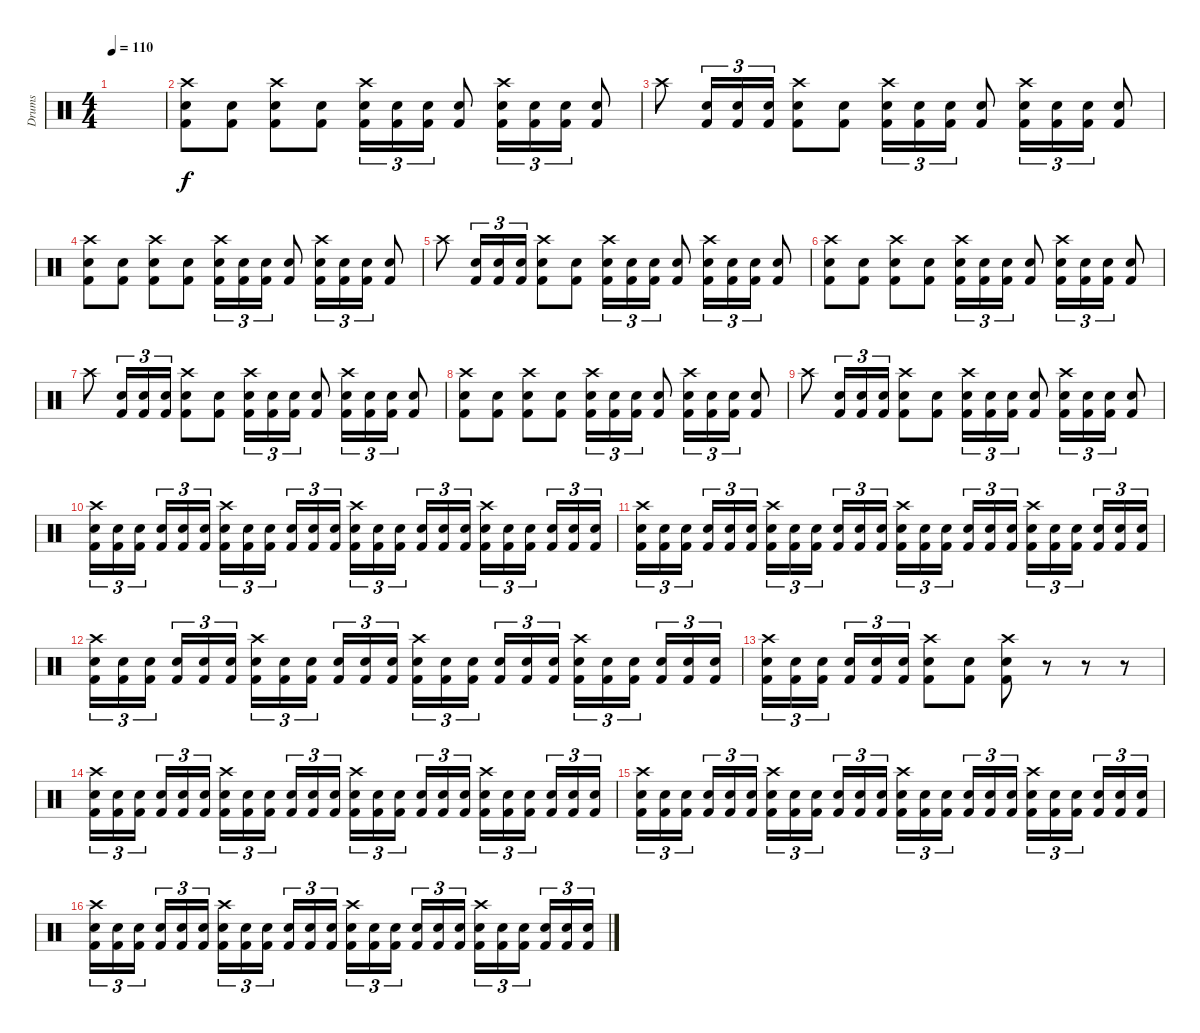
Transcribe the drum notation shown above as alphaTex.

\track ("Drums" "Drums") {instrument percussion}
\staff {score}
\articulation defaults
\ts (4 4)
\tempo 110
\clef neutral
\ks c
|
("Crash high (hit)" "Electric Snare (hit)" "Kick (hit) 2").8 ("Electric Snare (hit)" "Kick (hit) 2").8 ("Crash high (hit)" "Electric Snare (hit)" "Kick (hit) 2").8 ("Electric Snare (hit)" "Kick (hit) 2").8 ("Crash high (hit)" "Electric Snare (hit)" "Kick (hit) 2").16{tu (3 2)} ("Electric Snare (hit)" "Kick (hit) 2").16{tu (3 2)} ("Electric Snare (hit)" "Kick (hit) 2").16{tu (3 2)} ("Electric Snare (hit)" "Kick (hit) 2").8 ("Crash high (hit)" "Electric Snare (hit)" "Kick (hit) 2").16{tu (3 2)} ("Electric Snare (hit)" "Kick (hit) 2").16{tu (3 2)} ("Electric Snare (hit)" "Kick (hit) 2").16{tu (3 2)} ("Electric Snare (hit)" "Kick (hit) 2").8 |
"Crash high (hit)".8 ("Electric Snare (hit)" "Kick (hit) 2").16{tu (3 2)} ("Electric Snare (hit)" "Kick (hit) 2").16{tu (3 2)} ("Electric Snare (hit)" "Kick (hit) 2").16{tu (3 2)} ("Crash high (hit)" "Electric Snare (hit)" "Kick (hit) 2").8 ("Electric Snare (hit)" "Kick (hit) 2").8 ("Crash high (hit)" "Electric Snare (hit)" "Kick (hit) 2").16{tu (3 2)} ("Electric Snare (hit)" "Kick (hit) 2").16{tu (3 2)} ("Electric Snare (hit)" "Kick (hit) 2").16{tu (3 2)} ("Electric Snare (hit)" "Kick (hit) 2").8 ("Crash high (hit)" "Electric Snare (hit)" "Kick (hit) 2").16{tu (3 2)} ("Electric Snare (hit)" "Kick (hit) 2").16{tu (3 2)} ("Electric Snare (hit)" "Kick (hit) 2").16{tu (3 2)} ("Electric Snare (hit)" "Kick (hit) 2").8 |
("Crash high (hit)" "Electric Snare (hit)" "Kick (hit) 2").8 ("Electric Snare (hit)" "Kick (hit) 2").8 ("Crash high (hit)" "Electric Snare (hit)" "Kick (hit) 2").8 ("Electric Snare (hit)" "Kick (hit) 2").8 ("Crash high (hit)" "Electric Snare (hit)" "Kick (hit) 2").16{tu (3 2)} ("Electric Snare (hit)" "Kick (hit) 2").16{tu (3 2)} ("Electric Snare (hit)" "Kick (hit) 2").16{tu (3 2)} ("Electric Snare (hit)" "Kick (hit) 2").8 ("Crash high (hit)" "Electric Snare (hit)" "Kick (hit) 2").16{tu (3 2)} ("Electric Snare (hit)" "Kick (hit) 2").16{tu (3 2)} ("Electric Snare (hit)" "Kick (hit) 2").16{tu (3 2)} ("Electric Snare (hit)" "Kick (hit) 2").8 |
"Crash high (hit)".8 ("Electric Snare (hit)" "Kick (hit) 2").16{tu (3 2)} ("Electric Snare (hit)" "Kick (hit) 2").16{tu (3 2)} ("Electric Snare (hit)" "Kick (hit) 2").16{tu (3 2)} ("Crash high (hit)" "Electric Snare (hit)" "Kick (hit) 2").8 ("Electric Snare (hit)" "Kick (hit) 2").8 ("Crash high (hit)" "Electric Snare (hit)" "Kick (hit) 2").16{tu (3 2)} ("Electric Snare (hit)" "Kick (hit) 2").16{tu (3 2)} ("Electric Snare (hit)" "Kick (hit) 2").16{tu (3 2)} ("Electric Snare (hit)" "Kick (hit) 2").8 ("Crash high (hit)" "Electric Snare (hit)" "Kick (hit) 2").16{tu (3 2)} ("Electric Snare (hit)" "Kick (hit) 2").16{tu (3 2)} ("Electric Snare (hit)" "Kick (hit) 2").16{tu (3 2)} ("Electric Snare (hit)" "Kick (hit) 2").8 |
("Crash high (hit)" "Electric Snare (hit)" "Kick (hit) 2").8 ("Electric Snare (hit)" "Kick (hit) 2").8 ("Crash high (hit)" "Electric Snare (hit)" "Kick (hit) 2").8 ("Electric Snare (hit)" "Kick (hit) 2").8 ("Crash high (hit)" "Electric Snare (hit)" "Kick (hit) 2").16{tu (3 2)} ("Electric Snare (hit)" "Kick (hit) 2").16{tu (3 2)} ("Electric Snare (hit)" "Kick (hit) 2").16{tu (3 2)} ("Electric Snare (hit)" "Kick (hit) 2").8 ("Crash high (hit)" "Electric Snare (hit)" "Kick (hit) 2").16{tu (3 2)} ("Electric Snare (hit)" "Kick (hit) 2").16{tu (3 2)} ("Electric Snare (hit)" "Kick (hit) 2").16{tu (3 2)} ("Electric Snare (hit)" "Kick (hit) 2").8 |
"Crash high (hit)".8 ("Electric Snare (hit)" "Kick (hit) 2").16{tu (3 2)} ("Electric Snare (hit)" "Kick (hit) 2").16{tu (3 2)} ("Electric Snare (hit)" "Kick (hit) 2").16{tu (3 2)} ("Crash high (hit)" "Electric Snare (hit)" "Kick (hit) 2").8 ("Electric Snare (hit)" "Kick (hit) 2").8 ("Crash high (hit)" "Electric Snare (hit)" "Kick (hit) 2").16{tu (3 2)} ("Electric Snare (hit)" "Kick (hit) 2").16{tu (3 2)} ("Electric Snare (hit)" "Kick (hit) 2").16{tu (3 2)} ("Electric Snare (hit)" "Kick (hit) 2").8 ("Crash high (hit)" "Electric Snare (hit)" "Kick (hit) 2").16{tu (3 2)} ("Electric Snare (hit)" "Kick (hit) 2").16{tu (3 2)} ("Electric Snare (hit)" "Kick (hit) 2").16{tu (3 2)} ("Electric Snare (hit)" "Kick (hit) 2").8 |
("Crash high (hit)" "Electric Snare (hit)" "Kick (hit) 2").8 ("Electric Snare (hit)" "Kick (hit) 2").8 ("Crash high (hit)" "Electric Snare (hit)" "Kick (hit) 2").8 ("Electric Snare (hit)" "Kick (hit) 2").8 ("Crash high (hit)" "Electric Snare (hit)" "Kick (hit) 2").16{tu (3 2)} ("Electric Snare (hit)" "Kick (hit) 2").16{tu (3 2)} ("Electric Snare (hit)" "Kick (hit) 2").16{tu (3 2)} ("Electric Snare (hit)" "Kick (hit) 2").8 ("Crash high (hit)" "Electric Snare (hit)" "Kick (hit) 2").16{tu (3 2)} ("Electric Snare (hit)" "Kick (hit) 2").16{tu (3 2)} ("Electric Snare (hit)" "Kick (hit) 2").16{tu (3 2)} ("Electric Snare (hit)" "Kick (hit) 2").8 |
"Crash high (hit)".8 ("Electric Snare (hit)" "Kick (hit) 2").16{tu (3 2)} ("Electric Snare (hit)" "Kick (hit) 2").16{tu (3 2)} ("Electric Snare (hit)" "Kick (hit) 2").16{tu (3 2)} ("Crash high (hit)" "Electric Snare (hit)" "Kick (hit) 2").8 ("Electric Snare (hit)" "Kick (hit) 2").8 ("Crash high (hit)" "Electric Snare (hit)" "Kick (hit) 2").16{tu (3 2)} ("Electric Snare (hit)" "Kick (hit) 2").16{tu (3 2)} ("Electric Snare (hit)" "Kick (hit) 2").16{tu (3 2)} ("Electric Snare (hit)" "Kick (hit) 2").8 ("Crash high (hit)" "Electric Snare (hit)" "Kick (hit) 2").16{tu (3 2)} ("Electric Snare (hit)" "Kick (hit) 2").16{tu (3 2)} ("Electric Snare (hit)" "Kick (hit) 2").16{tu (3 2)} ("Electric Snare (hit)" "Kick (hit) 2").8 |
("Crash high (hit)" "Electric Snare (hit)" "Kick (hit) 2").16{tu (3 2)} ("Electric Snare (hit)" "Kick (hit) 2").16{tu (3 2)} ("Electric Snare (hit)" "Kick (hit) 2").16{tu (3 2) beam splitsecondary} ("Electric Snare (hit)" "Kick (hit) 2").16{tu (3 2)} ("Electric Snare (hit)" "Kick (hit) 2").16{tu (3 2)} ("Electric Snare (hit)" "Kick (hit) 2").16{tu (3 2)} ("Crash high (hit)" "Electric Snare (hit)" "Kick (hit) 2").16{tu (3 2)} ("Electric Snare (hit)" "Kick (hit) 2").16{tu (3 2)} ("Electric Snare (hit)" "Kick (hit) 2").16{tu (3 2) beam splitsecondary} ("Electric Snare (hit)" "Kick (hit) 2").16{tu (3 2)} ("Electric Snare (hit)" "Kick (hit) 2").16{tu (3 2)} ("Electric Snare (hit)" "Kick (hit) 2").16{tu (3 2)} ("Crash high (hit)" "Electric Snare (hit)" "Kick (hit) 2").16{tu (3 2)} ("Electric Snare (hit)" "Kick (hit) 2").16{tu (3 2)} ("Electric Snare (hit)" "Kick (hit) 2").16{tu (3 2) beam splitsecondary} ("Electric Snare (hit)" "Kick (hit) 2").16{tu (3 2)} ("Electric Snare (hit)" "Kick (hit) 2").16{tu (3 2)} ("Electric Snare (hit)" "Kick (hit) 2").16{tu (3 2)} ("Crash high (hit)" "Electric Snare (hit)" "Kick (hit) 2").16{tu (3 2)} ("Electric Snare (hit)" "Kick (hit) 2").16{tu (3 2)} ("Electric Snare (hit)" "Kick (hit) 2").16{tu (3 2) beam splitsecondary} ("Electric Snare (hit)" "Kick (hit) 2").16{tu (3 2)} ("Electric Snare (hit)" "Kick (hit) 2").16{tu (3 2)} ("Electric Snare (hit)" "Kick (hit) 2").16{tu (3 2)} |
("Crash high (hit)" "Electric Snare (hit)" "Kick (hit) 2").16{tu (3 2)} ("Electric Snare (hit)" "Kick (hit) 2").16{tu (3 2)} ("Electric Snare (hit)" "Kick (hit) 2").16{tu (3 2) beam splitsecondary} ("Electric Snare (hit)" "Kick (hit) 2").16{tu (3 2)} ("Electric Snare (hit)" "Kick (hit) 2").16{tu (3 2)} ("Electric Snare (hit)" "Kick (hit) 2").16{tu (3 2)} ("Crash high (hit)" "Electric Snare (hit)" "Kick (hit) 2").16{tu (3 2)} ("Electric Snare (hit)" "Kick (hit) 2").16{tu (3 2)} ("Electric Snare (hit)" "Kick (hit) 2").16{tu (3 2) beam splitsecondary} ("Electric Snare (hit)" "Kick (hit) 2").16{tu (3 2)} ("Electric Snare (hit)" "Kick (hit) 2").16{tu (3 2)} ("Electric Snare (hit)" "Kick (hit) 2").16{tu (3 2)} ("Crash high (hit)" "Electric Snare (hit)" "Kick (hit) 2").16{tu (3 2)} ("Electric Snare (hit)" "Kick (hit) 2").16{tu (3 2)} ("Electric Snare (hit)" "Kick (hit) 2").16{tu (3 2) beam splitsecondary} ("Electric Snare (hit)" "Kick (hit) 2").16{tu (3 2)} ("Electric Snare (hit)" "Kick (hit) 2").16{tu (3 2)} ("Electric Snare (hit)" "Kick (hit) 2").16{tu (3 2)} ("Crash high (hit)" "Electric Snare (hit)" "Kick (hit) 2").16{tu (3 2)} ("Electric Snare (hit)" "Kick (hit) 2").16{tu (3 2)} ("Electric Snare (hit)" "Kick (hit) 2").16{tu (3 2) beam splitsecondary} ("Electric Snare (hit)" "Kick (hit) 2").16{tu (3 2)} ("Electric Snare (hit)" "Kick (hit) 2").16{tu (3 2)} ("Electric Snare (hit)" "Kick (hit) 2").16{tu (3 2)} |
("Crash high (hit)" "Electric Snare (hit)" "Kick (hit) 2").16{tu (3 2)} ("Electric Snare (hit)" "Kick (hit) 2").16{tu (3 2)} ("Electric Snare (hit)" "Kick (hit) 2").16{tu (3 2) beam splitsecondary} ("Electric Snare (hit)" "Kick (hit) 2").16{tu (3 2)} ("Electric Snare (hit)" "Kick (hit) 2").16{tu (3 2)} ("Electric Snare (hit)" "Kick (hit) 2").16{tu (3 2)} ("Crash high (hit)" "Electric Snare (hit)" "Kick (hit) 2").16{tu (3 2)} ("Electric Snare (hit)" "Kick (hit) 2").16{tu (3 2)} ("Electric Snare (hit)" "Kick (hit) 2").16{tu (3 2) beam splitsecondary} ("Electric Snare (hit)" "Kick (hit) 2").16{tu (3 2)} ("Electric Snare (hit)" "Kick (hit) 2").16{tu (3 2)} ("Electric Snare (hit)" "Kick (hit) 2").16{tu (3 2)} ("Crash high (hit)" "Electric Snare (hit)" "Kick (hit) 2").16{tu (3 2)} ("Electric Snare (hit)" "Kick (hit) 2").16{tu (3 2)} ("Electric Snare (hit)" "Kick (hit) 2").16{tu (3 2) beam splitsecondary} ("Electric Snare (hit)" "Kick (hit) 2").16{tu (3 2)} ("Electric Snare (hit)" "Kick (hit) 2").16{tu (3 2)} ("Electric Snare (hit)" "Kick (hit) 2").16{tu (3 2)} ("Crash high (hit)" "Electric Snare (hit)" "Kick (hit) 2").16{tu (3 2)} ("Electric Snare (hit)" "Kick (hit) 2").16{tu (3 2)} ("Electric Snare (hit)" "Kick (hit) 2").16{tu (3 2) beam splitsecondary} ("Electric Snare (hit)" "Kick (hit) 2").16{tu (3 2)} ("Electric Snare (hit)" "Kick (hit) 2").16{tu (3 2)} ("Electric Snare (hit)" "Kick (hit) 2").16{tu (3 2)} |
("Crash high (hit)" "Electric Snare (hit)" "Kick (hit) 2").16{tu (3 2)} ("Electric Snare (hit)" "Kick (hit) 2").16{tu (3 2)} ("Electric Snare (hit)" "Kick (hit) 2").16{tu (3 2) beam splitsecondary} ("Electric Snare (hit)" "Kick (hit) 2").16{tu (3 2)} ("Electric Snare (hit)" "Kick (hit) 2").16{tu (3 2)} ("Electric Snare (hit)" "Kick (hit) 2").16{tu (3 2)} ("Crash high (hit)" "Electric Snare (hit)" "Kick (hit) 2").8 ("Electric Snare (hit)" "Kick (hit) 2").8 ("Crash high (hit)" "Electric Snare (hit)" "Kick (hit) 2").8 r.8 r.8 r.8 |
("Crash high (hit)" "Electric Snare (hit)" "Kick (hit) 2").16{tu (3 2)} ("Electric Snare (hit)" "Kick (hit) 2").16{tu (3 2)} ("Electric Snare (hit)" "Kick (hit) 2").16{tu (3 2) beam splitsecondary} ("Electric Snare (hit)" "Kick (hit) 2").16{tu (3 2)} ("Electric Snare (hit)" "Kick (hit) 2").16{tu (3 2)} ("Electric Snare (hit)" "Kick (hit) 2").16{tu (3 2)} ("Crash high (hit)" "Electric Snare (hit)" "Kick (hit) 2").16{tu (3 2)} ("Electric Snare (hit)" "Kick (hit) 2").16{tu (3 2)} ("Electric Snare (hit)" "Kick (hit) 2").16{tu (3 2) beam splitsecondary} ("Electric Snare (hit)" "Kick (hit) 2").16{tu (3 2)} ("Electric Snare (hit)" "Kick (hit) 2").16{tu (3 2)} ("Electric Snare (hit)" "Kick (hit) 2").16{tu (3 2)} ("Crash high (hit)" "Electric Snare (hit)" "Kick (hit) 2").16{tu (3 2)} ("Electric Snare (hit)" "Kick (hit) 2").16{tu (3 2)} ("Electric Snare (hit)" "Kick (hit) 2").16{tu (3 2) beam splitsecondary} ("Electric Snare (hit)" "Kick (hit) 2").16{tu (3 2)} ("Electric Snare (hit)" "Kick (hit) 2").16{tu (3 2)} ("Electric Snare (hit)" "Kick (hit) 2").16{tu (3 2)} ("Crash high (hit)" "Electric Snare (hit)" "Kick (hit) 2").16{tu (3 2)} ("Electric Snare (hit)" "Kick (hit) 2").16{tu (3 2)} ("Electric Snare (hit)" "Kick (hit) 2").16{tu (3 2) beam splitsecondary} ("Electric Snare (hit)" "Kick (hit) 2").16{tu (3 2)} ("Electric Snare (hit)" "Kick (hit) 2").16{tu (3 2)} ("Electric Snare (hit)" "Kick (hit) 2").16{tu (3 2)} |
("Crash high (hit)" "Electric Snare (hit)" "Kick (hit) 2").16{tu (3 2)} ("Electric Snare (hit)" "Kick (hit) 2").16{tu (3 2)} ("Electric Snare (hit)" "Kick (hit) 2").16{tu (3 2) beam splitsecondary} ("Electric Snare (hit)" "Kick (hit) 2").16{tu (3 2)} ("Electric Snare (hit)" "Kick (hit) 2").16{tu (3 2)} ("Electric Snare (hit)" "Kick (hit) 2").16{tu (3 2)} ("Crash high (hit)" "Electric Snare (hit)" "Kick (hit) 2").16{tu (3 2)} ("Electric Snare (hit)" "Kick (hit) 2").16{tu (3 2)} ("Electric Snare (hit)" "Kick (hit) 2").16{tu (3 2) beam splitsecondary} ("Electric Snare (hit)" "Kick (hit) 2").16{tu (3 2)} ("Electric Snare (hit)" "Kick (hit) 2").16{tu (3 2)} ("Electric Snare (hit)" "Kick (hit) 2").16{tu (3 2)} ("Crash high (hit)" "Electric Snare (hit)" "Kick (hit) 2").16{tu (3 2)} ("Electric Snare (hit)" "Kick (hit) 2").16{tu (3 2)} ("Electric Snare (hit)" "Kick (hit) 2").16{tu (3 2) beam splitsecondary} ("Electric Snare (hit)" "Kick (hit) 2").16{tu (3 2)} ("Electric Snare (hit)" "Kick (hit) 2").16{tu (3 2)} ("Electric Snare (hit)" "Kick (hit) 2").16{tu (3 2)} ("Crash high (hit)" "Electric Snare (hit)" "Kick (hit) 2").16{tu (3 2)} ("Electric Snare (hit)" "Kick (hit) 2").16{tu (3 2)} ("Electric Snare (hit)" "Kick (hit) 2").16{tu (3 2) beam splitsecondary} ("Electric Snare (hit)" "Kick (hit) 2").16{tu (3 2)} ("Electric Snare (hit)" "Kick (hit) 2").16{tu (3 2)} ("Electric Snare (hit)" "Kick (hit) 2").16{tu (3 2)} |
("Crash high (hit)" "Electric Snare (hit)" "Kick (hit) 2").16{tu (3 2)} ("Electric Snare (hit)" "Kick (hit) 2").16{tu (3 2)} ("Electric Snare (hit)" "Kick (hit) 2").16{tu (3 2) beam splitsecondary} ("Electric Snare (hit)" "Kick (hit) 2").16{tu (3 2)} ("Electric Snare (hit)" "Kick (hit) 2").16{tu (3 2)} ("Electric Snare (hit)" "Kick (hit) 2").16{tu (3 2)} ("Crash high (hit)" "Electric Snare (hit)" "Kick (hit) 2").16{tu (3 2)} ("Electric Snare (hit)" "Kick (hit) 2").16{tu (3 2)} ("Electric Snare (hit)" "Kick (hit) 2").16{tu (3 2) beam splitsecondary} ("Electric Snare (hit)" "Kick (hit) 2").16{tu (3 2)} ("Electric Snare (hit)" "Kick (hit) 2").16{tu (3 2)} ("Electric Snare (hit)" "Kick (hit) 2").16{tu (3 2)} ("Crash high (hit)" "Electric Snare (hit)" "Kick (hit) 2").16{tu (3 2)} ("Electric Snare (hit)" "Kick (hit) 2").16{tu (3 2)} ("Electric Snare (hit)" "Kick (hit) 2").16{tu (3 2) beam splitsecondary} ("Electric Snare (hit)" "Kick (hit) 2").16{tu (3 2)} ("Electric Snare (hit)" "Kick (hit) 2").16{tu (3 2)} ("Electric Snare (hit)" "Kick (hit) 2").16{tu (3 2)} ("Crash high (hit)" "Electric Snare (hit)" "Kick (hit) 2").16{tu (3 2)} ("Electric Snare (hit)" "Kick (hit) 2").16{tu (3 2)} ("Electric Snare (hit)" "Kick (hit) 2").16{tu (3 2) beam splitsecondary} ("Electric Snare (hit)" "Kick (hit) 2").16{tu (3 2)} ("Electric Snare (hit)" "Kick (hit) 2").16{tu (3 2)} ("Electric Snare (hit)" "Kick (hit) 2").16{tu (3 2)}
